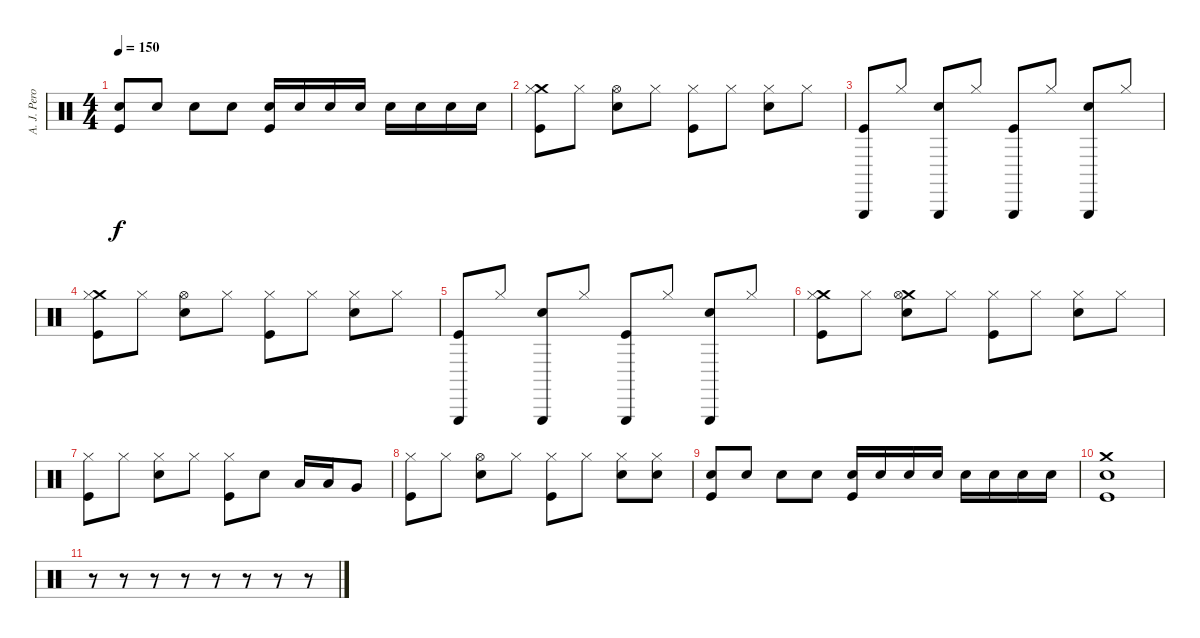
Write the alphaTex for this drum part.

\track ("A. J. Pero - Drums" "A. J. Pero") {instrument percussion}
\staff {score}
\articulation defaults
\ts (4 4)
\tempo 150
\clef neutral
\ks c
("Snare (hit) 2" "Kick (hit)").8{dy f} "Snare (hit) 2".8 "Snare (hit) 2".8 "Snare (hit) 2".8 ("Snare (hit) 2" "Kick (hit)").16 "Snare (hit) 2".16 "Snare (hit) 2".16 "Snare (hit) 2".16 "Snare (hit) 2".16 "Snare (hit) 2".16 "Snare (hit) 2".16 "Snare (hit) 2".16 |
("Crash medium (hit)" "Hi-Hat (closed)" "Kick (hit)").8 "Hi-Hat (closed)".8 ("Hi-Hat (open)" "Snare (hit) 2").8 "Hi-Hat (closed)".8 ("Hi-Hat (closed)" "Kick (hit)").8 "Hi-Hat (closed)".8 ("Hi-Hat (closed)" "Snare (hit) 2").8 "Hi-Hat (closed)".8 |
("Triangle (hit)" "Kick (hit)").8 "Hi-Hat (closed)".8 ("Triangle (hit)" "Snare (hit) 2").8 "Hi-Hat (closed)".8 ("Triangle (hit)" "Kick (hit)").8 "Hi-Hat (closed)".8 ("Triangle (hit)" "Snare (hit) 2").8 "Hi-Hat (closed)".8 |
("Crash medium (hit)" "Hi-Hat (closed)" "Kick (hit)").8 "Hi-Hat (closed)".8 ("Hi-Hat (open)" "Snare (hit) 2").8 "Hi-Hat (closed)".8 ("Hi-Hat (closed)" "Kick (hit)").8 "Hi-Hat (closed)".8 ("Hi-Hat (closed)" "Snare (hit) 2").8 "Hi-Hat (closed)".8 |
("Triangle (hit)" "Kick (hit)").8 "Hi-Hat (closed)".8 ("Triangle (hit)" "Snare (hit) 2").8 "Hi-Hat (closed)".8 ("Triangle (hit)" "Kick (hit)").8 "Hi-Hat (closed)".8 ("Triangle (hit)" "Snare (hit) 2").8 "Hi-Hat (closed)".8 |
("Crash medium (hit)" "Hi-Hat (closed)" "Kick (hit)").8 "Hi-Hat (closed)".8 ("Crash medium (hit)" "Hi-Hat (open)" "Snare (hit) 2").8 "Hi-Hat (closed)".8 ("Hi-Hat (closed)" "Kick (hit)").8 "Hi-Hat (closed)".8 ("Hi-Hat (closed)" "Snare (hit) 2").8 "Hi-Hat (closed)".8 |
("Hi-Hat (closed)" "Kick (hit)").8 "Hi-Hat (closed)".8 ("Hi-Hat (closed)" "Snare (hit) 2").8 "Hi-Hat (closed)".8 ("Hi-Hat (closed)" "Kick (hit)").8 "Snare (hit) 2".8 "Low Floor Tom (hit)".16 "Low Floor Tom (hit)".16 "Very Low Tom (hit)".8 |
("Hi-Hat (closed)" "Kick (hit)").8 "Hi-Hat (closed)".8 ("Hi-Hat (open)" "Snare (hit) 2").8 "Hi-Hat (closed)".8 ("Hi-Hat (closed)" "Kick (hit)").8 "Hi-Hat (closed)".8 ("Hi-Hat (closed)" "Snare (hit) 2").8 ("Hi-Hat (closed)" "Snare (hit) 2").8 |
("Snare (hit) 2" "Kick (hit)").8 "Snare (hit) 2".8 "Snare (hit) 2".8 "Snare (hit) 2".8 ("Snare (hit) 2" "Kick (hit)").16 "Snare (hit) 2".16 "Snare (hit) 2".16 "Snare (hit) 2".16 "Snare (hit) 2".16 "Snare (hit) 2".16 "Snare (hit) 2".16 "Snare (hit) 2".16 |
("Crash medium (hit)" "Snare (hit) 2" "Kick (hit)").1 |
r.8 r.8 r.8 r.8 r.8 r.8 r.8 r.8
